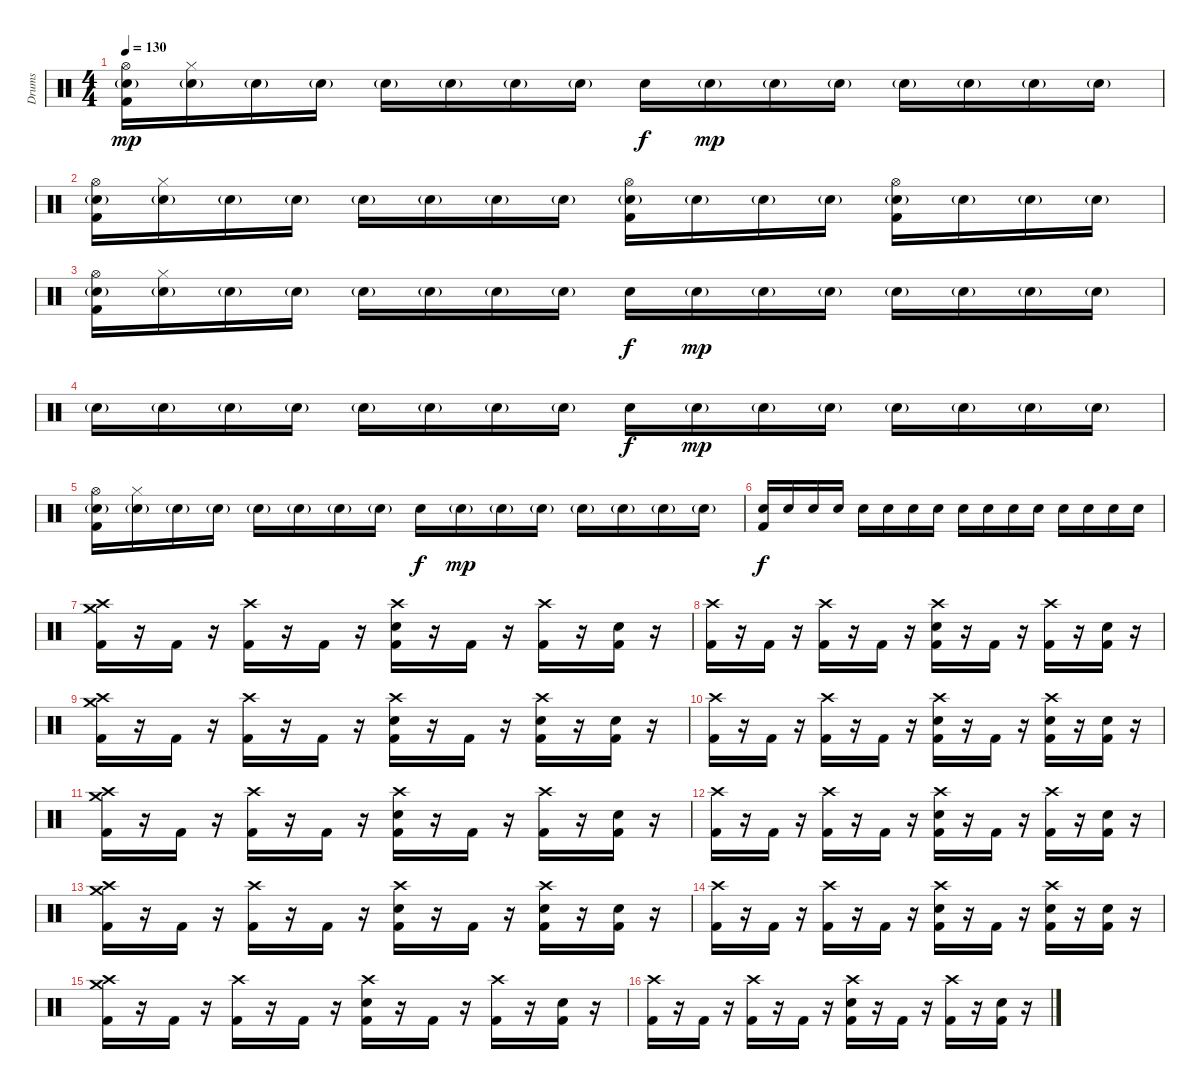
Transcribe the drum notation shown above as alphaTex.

\track ("Drums" "Drums") {instrument percussion}
\staff {score}
\articulation defaults
\ts (4 4)
\tempo 130
\clef neutral
\ks c
("Hi-Hat (open)" "Electric Snare (hit)"{g} "Kick (hit) 2").16{dy mp} ("Hi-Hat (closed)" "Electric Snare (hit)"{g}).16 "Electric Snare (hit)"{g}.16 "Electric Snare (hit)"{g}.16 "Electric Snare (hit)"{g}.16 "Electric Snare (hit)"{g}.16 "Electric Snare (hit)"{g}.16 "Electric Snare (hit)"{g}.16 "Electric Snare (hit)".16{dy f} "Electric Snare (hit)"{g}.16{dy mp} "Electric Snare (hit)"{g}.16 "Electric Snare (hit)"{g}.16 "Electric Snare (hit)"{g}.16 "Electric Snare (hit)"{g}.16 "Electric Snare (hit)"{g}.16 "Electric Snare (hit)"{g}.16 |
("Hi-Hat (open)" "Electric Snare (hit)"{g} "Kick (hit) 2").16 ("Hi-Hat (closed)" "Electric Snare (hit)"{g}).16 "Electric Snare (hit)"{g}.16 "Electric Snare (hit)"{g}.16 "Electric Snare (hit)"{g}.16 "Electric Snare (hit)"{g}.16 "Electric Snare (hit)"{g}.16 "Electric Snare (hit)"{g}.16 ("Hi-Hat (open)" "Electric Snare (hit)"{g} "Kick (hit) 2").16 "Electric Snare (hit)"{g}.16 "Electric Snare (hit)"{g}.16 "Electric Snare (hit)"{g}.16 ("Hi-Hat (open)" "Electric Snare (hit)"{g} "Kick (hit) 2").16 "Electric Snare (hit)"{g}.16 "Electric Snare (hit)"{g}.16 "Electric Snare (hit)"{g}.16 |
("Hi-Hat (open)" "Electric Snare (hit)"{g} "Kick (hit) 2").16 ("Hi-Hat (closed)" "Electric Snare (hit)"{g}).16 "Electric Snare (hit)"{g}.16 "Electric Snare (hit)"{g}.16 "Electric Snare (hit)"{g}.16 "Electric Snare (hit)"{g}.16 "Electric Snare (hit)"{g}.16 "Electric Snare (hit)"{g}.16 "Electric Snare (hit)".16{dy f} "Electric Snare (hit)"{g}.16{dy mp} "Electric Snare (hit)"{g}.16 "Electric Snare (hit)"{g}.16 "Electric Snare (hit)"{g}.16 "Electric Snare (hit)"{g}.16 "Electric Snare (hit)"{g}.16 "Electric Snare (hit)"{g}.16 |
"Electric Snare (hit)"{g}.16 "Electric Snare (hit)"{g}.16 "Electric Snare (hit)"{g}.16 "Electric Snare (hit)"{g}.16 "Electric Snare (hit)"{g}.16 "Electric Snare (hit)"{g}.16 "Electric Snare (hit)"{g}.16 "Electric Snare (hit)"{g}.16 "Electric Snare (hit)".16{dy f} "Electric Snare (hit)"{g}.16{dy mp} "Electric Snare (hit)"{g}.16 "Electric Snare (hit)"{g}.16 "Electric Snare (hit)"{g}.16 "Electric Snare (hit)"{g}.16 "Electric Snare (hit)"{g}.16 "Electric Snare (hit)"{g}.16 |
("Hi-Hat (open)" "Electric Snare (hit)"{g} "Kick (hit) 2").16 ("Hi-Hat (closed)" "Electric Snare (hit)"{g}).16 "Electric Snare (hit)"{g}.16 "Electric Snare (hit)"{g}.16 "Electric Snare (hit)"{g}.16 "Electric Snare (hit)"{g}.16 "Electric Snare (hit)"{g}.16 "Electric Snare (hit)"{g}.16 "Electric Snare (hit)".16{dy f} "Electric Snare (hit)"{g}.16{dy mp} "Electric Snare (hit)"{g}.16 "Electric Snare (hit)"{g}.16 "Electric Snare (hit)"{g}.16 "Electric Snare (hit)"{g}.16 "Electric Snare (hit)"{g}.16 "Electric Snare (hit)"{g}.16 |
("Electric Snare (hit)" "Kick (hit) 2").16{dy f volume 4} "Electric Snare (hit)".16{volume 15} "Electric Snare (hit)".16 "Electric Snare (hit)".16 "Electric Snare (hit)".16 "Electric Snare (hit)".16 "Electric Snare (hit)".16 "Electric Snare (hit)".16 "Electric Snare (hit)".16 "Electric Snare (hit)".16 "Electric Snare (hit)".16 "Electric Snare (hit)".16 "Electric Snare (hit)".16 "Electric Snare (hit)".16 "Electric Snare (hit)".16 "Electric Snare (hit)".16 |
("Crash high (hit)" "Crash medium (hit)" "Kick (hit) 2").16 r.16 "Kick (hit) 2".16 r.16 ("Crash high (hit)" "Kick (hit) 2").16 r.16 "Kick (hit) 2".16 r.16 ("Crash high (hit)" "Electric Snare (hit)" "Kick (hit) 2").16 r.16 "Kick (hit) 2".16 r.16 ("Crash high (hit)" "Kick (hit) 2").16 r.16 ("Electric Snare (hit)" "Kick (hit) 2").16 r.16 |
("Crash high (hit)" "Kick (hit) 2").16 r.16 "Kick (hit) 2".16 r.16 ("Crash high (hit)" "Kick (hit) 2").16 r.16 "Kick (hit) 2".16 r.16 ("Crash high (hit)" "Electric Snare (hit)" "Kick (hit) 2").16 r.16 "Kick (hit) 2".16 r.16 ("Crash high (hit)" "Kick (hit) 2").16 r.16 ("Electric Snare (hit)" "Kick (hit) 2").16 r.16 |
("Crash high (hit)" "Crash medium (hit)" "Kick (hit) 2").16 r.16 "Kick (hit) 2".16 r.16 ("Crash high (hit)" "Kick (hit) 2").16 r.16 "Kick (hit) 2".16 r.16 ("Crash high (hit)" "Electric Snare (hit)" "Kick (hit) 2").16 r.16 "Kick (hit) 2".16 r.16 ("Crash high (hit)" "Electric Snare (hit)" "Kick (hit) 2").16 r.16 ("Electric Snare (hit)" "Kick (hit) 2").16 r.16 |
("Crash high (hit)" "Kick (hit) 2").16 r.16 "Kick (hit) 2".16 r.16 ("Crash high (hit)" "Kick (hit) 2").16 r.16 "Kick (hit) 2".16 r.16 ("Crash high (hit)" "Electric Snare (hit)" "Kick (hit) 2").16 r.16 "Kick (hit) 2".16 r.16 ("Crash high (hit)" "Electric Snare (hit)" "Kick (hit) 2").16 r.16 ("Electric Snare (hit)" "Kick (hit) 2").16 r.16 |
("Crash high (hit)" "Crash medium (hit)" "Kick (hit) 2").16 r.16 "Kick (hit) 2".16 r.16 ("Crash high (hit)" "Kick (hit) 2").16 r.16 "Kick (hit) 2".16 r.16 ("Crash high (hit)" "Electric Snare (hit)" "Kick (hit) 2").16 r.16 "Kick (hit) 2".16 r.16 ("Crash high (hit)" "Kick (hit) 2").16 r.16 ("Electric Snare (hit)" "Kick (hit) 2").16 r.16 |
("Crash high (hit)" "Kick (hit) 2").16 r.16 "Kick (hit) 2".16 r.16 ("Crash high (hit)" "Kick (hit) 2").16 r.16 "Kick (hit) 2".16 r.16 ("Crash high (hit)" "Electric Snare (hit)" "Kick (hit) 2").16 r.16 "Kick (hit) 2".16 r.16 ("Crash high (hit)" "Kick (hit) 2").16 r.16 ("Electric Snare (hit)" "Kick (hit) 2").16 r.16 |
("Crash high (hit)" "Crash medium (hit)" "Kick (hit) 2").16 r.16 "Kick (hit) 2".16 r.16 ("Crash high (hit)" "Kick (hit) 2").16 r.16 "Kick (hit) 2".16 r.16 ("Crash high (hit)" "Electric Snare (hit)" "Kick (hit) 2").16 r.16 "Kick (hit) 2".16 r.16 ("Crash high (hit)" "Electric Snare (hit)" "Kick (hit) 2").16 r.16 ("Electric Snare (hit)" "Kick (hit) 2").16 r.16 |
("Crash high (hit)" "Kick (hit) 2").16 r.16 "Kick (hit) 2".16 r.16 ("Crash high (hit)" "Kick (hit) 2").16 r.16 "Kick (hit) 2".16 r.16 ("Crash high (hit)" "Electric Snare (hit)" "Kick (hit) 2").16 r.16 "Kick (hit) 2".16 r.16 ("Crash high (hit)" "Electric Snare (hit)" "Kick (hit) 2").16 r.16 ("Electric Snare (hit)" "Kick (hit) 2").16 r.16 |
("Crash high (hit)" "Crash medium (hit)" "Kick (hit) 2").16 r.16 "Kick (hit) 2".16 r.16 ("Crash high (hit)" "Kick (hit) 2").16 r.16 "Kick (hit) 2".16 r.16 ("Crash high (hit)" "Electric Snare (hit)" "Kick (hit) 2").16 r.16 "Kick (hit) 2".16 r.16 ("Crash high (hit)" "Kick (hit) 2").16 r.16 ("Electric Snare (hit)" "Kick (hit) 2").16 r.16 |
("Crash high (hit)" "Kick (hit) 2").16 r.16 "Kick (hit) 2".16 r.16 ("Crash high (hit)" "Kick (hit) 2").16 r.16 "Kick (hit) 2".16 r.16 ("Crash high (hit)" "Electric Snare (hit)" "Kick (hit) 2").16 r.16 "Kick (hit) 2".16 r.16 ("Crash high (hit)" "Kick (hit) 2").16 r.16 ("Electric Snare (hit)" "Kick (hit) 2").16 r.16
